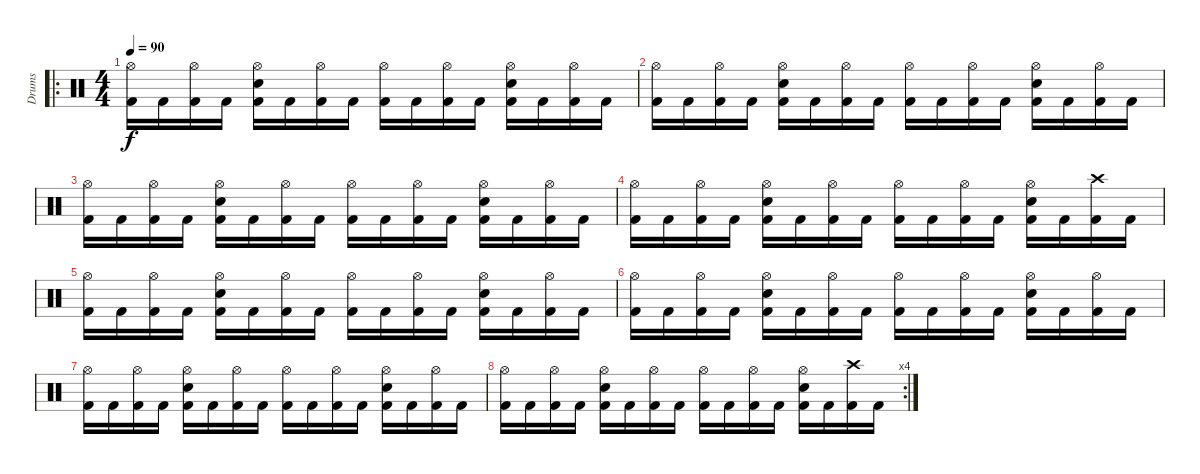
\track ("Drums" "Drums") {instrument percussion}
\staff {score}
\articulation defaults
\ro
\ts (4 4)
\tempo 90
\clef neutral
\ks c
("Hi-Hat (open)" "Kick (hit) 2").16{dy f} "Kick (hit) 2".16 ("Hi-Hat (open)" "Kick (hit) 2").16 "Kick (hit) 2".16 ("Hi-Hat (open)" "Snare (hit) 2" "Kick (hit) 2").16 "Kick (hit) 2".16 ("Hi-Hat (open)" "Kick (hit) 2").16 "Kick (hit) 2".16 ("Hi-Hat (open)" "Kick (hit) 2").16 "Kick (hit) 2".16 ("Hi-Hat (open)" "Kick (hit) 2").16 "Kick (hit) 2".16 ("Hi-Hat (open)" "Snare (hit) 2" "Kick (hit) 2").16 "Kick (hit) 2".16 ("Hi-Hat (open)" "Kick (hit) 2").16 "Kick (hit) 2".16 |
("Hi-Hat (open)" "Kick (hit) 2").16 "Kick (hit) 2".16 ("Hi-Hat (open)" "Kick (hit) 2").16 "Kick (hit) 2".16 ("Hi-Hat (open)" "Snare (hit) 2" "Kick (hit) 2").16 "Kick (hit) 2".16 ("Hi-Hat (open)" "Kick (hit) 2").16 "Kick (hit) 2".16 ("Hi-Hat (open)" "Kick (hit) 2").16 "Kick (hit) 2".16 ("Hi-Hat (open)" "Kick (hit) 2").16 "Kick (hit) 2".16 ("Hi-Hat (open)" "Snare (hit) 2" "Kick (hit) 2").16 "Kick (hit) 2".16 ("Hi-Hat (open)" "Kick (hit) 2").16 "Kick (hit) 2".16 |
("Hi-Hat (open)" "Kick (hit) 2").16 "Kick (hit) 2".16 ("Hi-Hat (open)" "Kick (hit) 2").16 "Kick (hit) 2".16 ("Hi-Hat (open)" "Snare (hit) 2" "Kick (hit) 2").16 "Kick (hit) 2".16 ("Hi-Hat (open)" "Kick (hit) 2").16 "Kick (hit) 2".16 ("Hi-Hat (open)" "Kick (hit) 2").16 "Kick (hit) 2".16 ("Hi-Hat (open)" "Kick (hit) 2").16 "Kick (hit) 2".16 ("Hi-Hat (open)" "Snare (hit) 2" "Kick (hit) 2").16 "Kick (hit) 2".16 ("Hi-Hat (open)" "Kick (hit) 2").16 "Kick (hit) 2".16 |
("Hi-Hat (open)" "Kick (hit) 2").16 "Kick (hit) 2".16 ("Hi-Hat (open)" "Kick (hit) 2").16 "Kick (hit) 2".16 ("Hi-Hat (open)" "Snare (hit) 2" "Kick (hit) 2").16 "Kick (hit) 2".16 ("Hi-Hat (open)" "Kick (hit) 2").16 "Kick (hit) 2".16 ("Hi-Hat (open)" "Kick (hit) 2").16 "Kick (hit) 2".16 ("Hi-Hat (open)" "Kick (hit) 2").16 "Kick (hit) 2".16 ("Hi-Hat (open)" "Snare (hit) 2" "Kick (hit) 2").16 "Kick (hit) 2".16 ("Crash high (hit)" "Kick (hit) 2").16 "Kick (hit) 2".16 |
("Hi-Hat (open)" "Kick (hit) 2").16 "Kick (hit) 2".16 ("Hi-Hat (open)" "Kick (hit) 2").16 "Kick (hit) 2".16 ("Hi-Hat (open)" "Snare (hit) 2" "Kick (hit) 2").16 "Kick (hit) 2".16 ("Hi-Hat (open)" "Kick (hit) 2").16 "Kick (hit) 2".16 ("Hi-Hat (open)" "Kick (hit) 2").16 "Kick (hit) 2".16 ("Hi-Hat (open)" "Kick (hit) 2").16 "Kick (hit) 2".16 ("Hi-Hat (open)" "Snare (hit) 2" "Kick (hit) 2").16 "Kick (hit) 2".16 ("Hi-Hat (open)" "Kick (hit) 2").16 "Kick (hit) 2".16 |
("Hi-Hat (open)" "Kick (hit) 2").16 "Kick (hit) 2".16 ("Hi-Hat (open)" "Kick (hit) 2").16 "Kick (hit) 2".16 ("Hi-Hat (open)" "Snare (hit) 2" "Kick (hit) 2").16 "Kick (hit) 2".16 ("Hi-Hat (open)" "Kick (hit) 2").16 "Kick (hit) 2".16 ("Hi-Hat (open)" "Kick (hit) 2").16 "Kick (hit) 2".16 ("Hi-Hat (open)" "Kick (hit) 2").16 "Kick (hit) 2".16 ("Hi-Hat (open)" "Snare (hit) 2" "Kick (hit) 2").16 "Kick (hit) 2".16 ("Hi-Hat (open)" "Kick (hit) 2").16 "Kick (hit) 2".16 |
("Hi-Hat (open)" "Kick (hit) 2").16 "Kick (hit) 2".16 ("Hi-Hat (open)" "Kick (hit) 2").16 "Kick (hit) 2".16 ("Hi-Hat (open)" "Snare (hit) 2" "Kick (hit) 2").16 "Kick (hit) 2".16 ("Hi-Hat (open)" "Kick (hit) 2").16 "Kick (hit) 2".16 ("Hi-Hat (open)" "Kick (hit) 2").16 "Kick (hit) 2".16 ("Hi-Hat (open)" "Kick (hit) 2").16 "Kick (hit) 2".16 ("Hi-Hat (open)" "Snare (hit) 2" "Kick (hit) 2").16 "Kick (hit) 2".16 ("Hi-Hat (open)" "Kick (hit) 2").16 "Kick (hit) 2".16 |
\rc 4
("Hi-Hat (open)" "Kick (hit) 2").16 "Kick (hit) 2".16 ("Hi-Hat (open)" "Kick (hit) 2").16 "Kick (hit) 2".16 ("Hi-Hat (open)" "Snare (hit) 2" "Kick (hit) 2").16 "Kick (hit) 2".16 ("Hi-Hat (open)" "Kick (hit) 2").16 "Kick (hit) 2".16 ("Hi-Hat (open)" "Kick (hit) 2").16 "Kick (hit) 2".16 ("Hi-Hat (open)" "Kick (hit) 2").16 "Kick (hit) 2".16 ("Hi-Hat (open)" "Snare (hit) 2" "Kick (hit) 2").16 "Kick (hit) 2".16 ("Crash high (hit)" "Kick (hit) 2").16 "Kick (hit) 2".16
